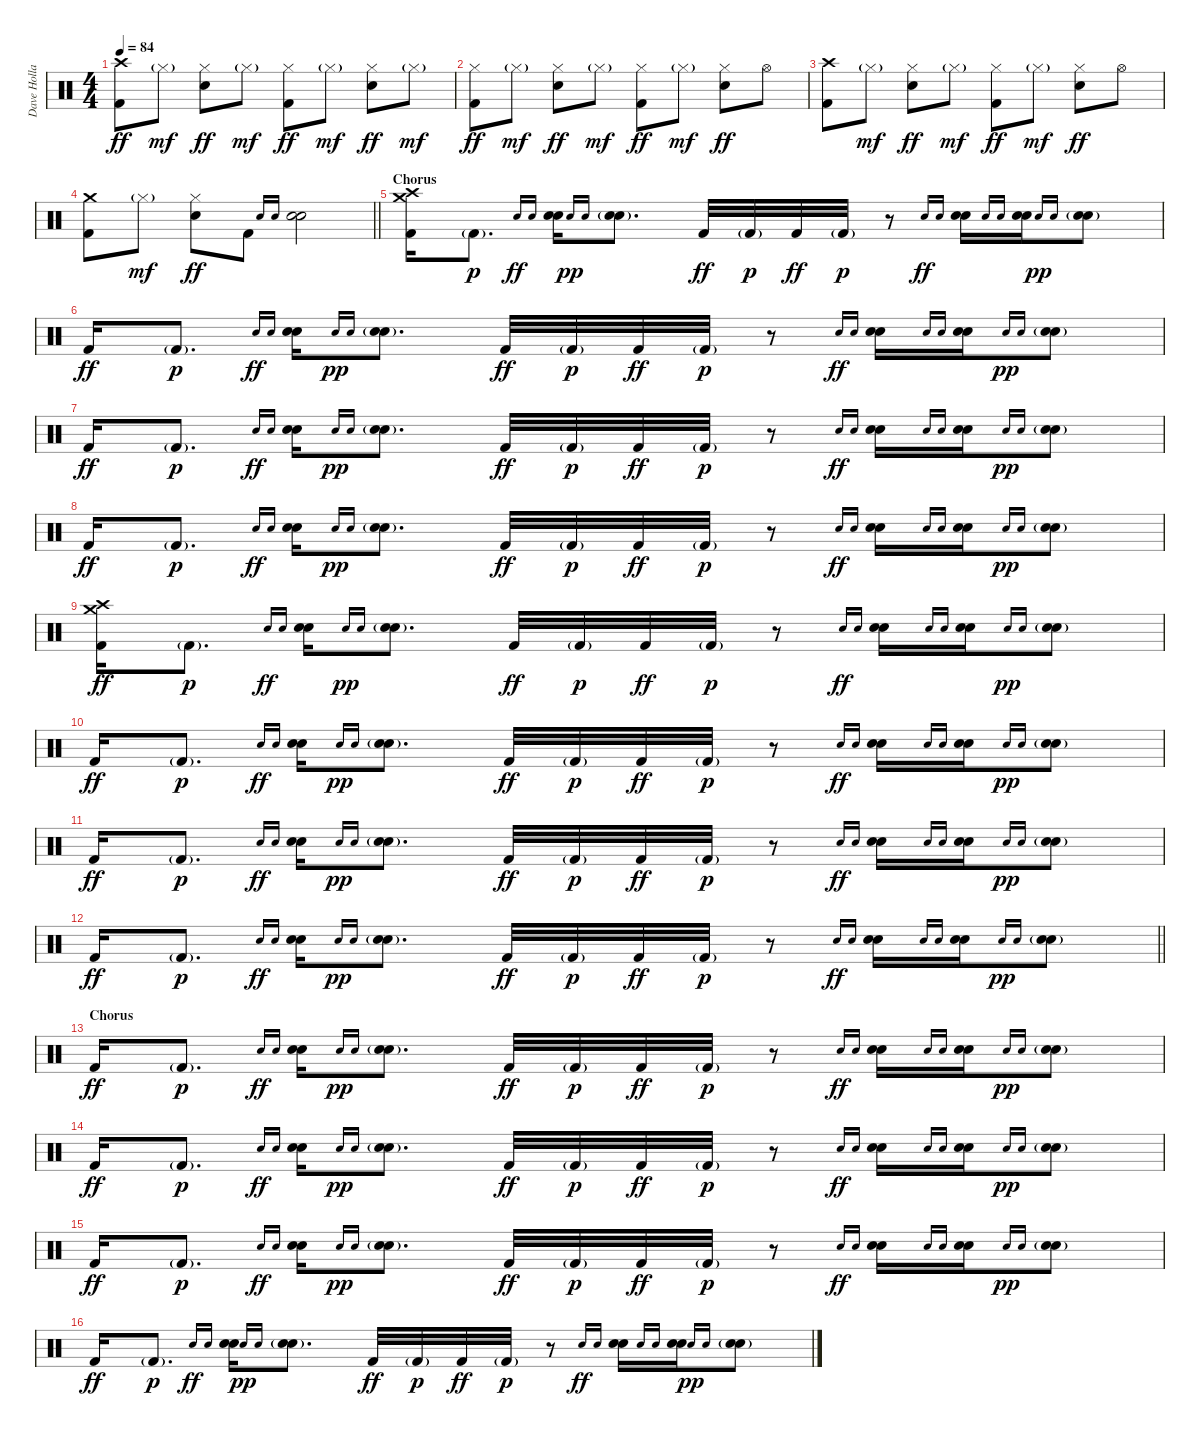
\track ("Dave Holland" "Dave Holla") {instrument percussion}
\staff {score}
\articulation defaults
\ts (4 4)
\tempo 84
\clef neutral
\ks c
("Crash high (hit)" "Kick (hit) 2").8{dy ff} "Hi-Hat (closed)"{g}.8{dy mf} ("Hi-Hat (closed)" "Snare (hit) 2").8{dy ff} "Hi-Hat (closed)"{g}.8{dy mf} ("Hi-Hat (closed)" "Kick (hit) 2").8{dy ff} "Hi-Hat (closed)"{g}.8{dy mf} ("Hi-Hat (closed)" "Snare (hit) 2").8{dy ff} "Hi-Hat (closed)"{g}.8{dy mf} |
("Hi-Hat (closed)" "Kick (hit) 2").8{dy ff} "Hi-Hat (closed)"{g}.8{dy mf} ("Hi-Hat (closed)" "Snare (hit) 2").8{dy ff} "Hi-Hat (closed)"{g}.8{dy mf} ("Hi-Hat (closed)" "Kick (hit) 2").8{dy ff} "Hi-Hat (closed)"{g}.8{dy mf} ("Hi-Hat (closed)" "Snare (hit) 2").8{dy ff} "Hi-Hat (open)".8 |
("Crash high (hit)" "Kick (hit) 2").8 "Hi-Hat (closed)"{g}.8{dy mf} ("Hi-Hat (closed)" "Snare (hit) 2").8{dy ff} "Hi-Hat (closed)"{g}.8{dy mf} ("Hi-Hat (closed)" "Kick (hit) 2").8{dy ff} "Hi-Hat (closed)"{g}.8{dy mf} ("Hi-Hat (closed)" "Snare (hit) 2").8{dy ff} "Hi-Hat (open)".8 |
\barLineRight lightlight
("Crash medium (hit)" "Kick (hit) 2").8 "Hi-Hat (closed)"{g}.8{dy mf} ("Hi-Hat (closed)" "Snare (hit) 2").8{dy ff} "Kick (hit) 2".8 "Electric Snare (hit)".16{gr onbeat} "Snare (hit) 2".16{gr onbeat} ("Electric Snare (hit)" "Snare (hit) 2").2 |
\section ("" "Chorus")
("Crash medium (hit)" "Crash high (hit)" "Kick (hit) 2").16 "Kick (hit) 2"{g}.8{d dy p} "Electric Snare (hit)".16{gr onbeat dy ff} "Snare (hit) 2".16{gr onbeat} ("Electric Snare (hit)" "Snare (hit) 2").16 "Electric Snare (hit)".16{gr onbeat dy pp} "Snare (hit) 2".16{gr onbeat} ("Electric Snare (hit)"{g} "Snare (hit) 2"{g}).8{d} "Kick (hit) 2".32{dy ff} "Kick (hit) 2"{g}.32{dy p} "Kick (hit) 2".32{dy ff} "Kick (hit) 2"{g}.32{dy p} r.8 "Electric Snare (hit)".16{gr onbeat dy ff} "Snare (hit) 2".16{gr onbeat} ("Electric Snare (hit)" "Snare (hit) 2").16 "Electric Snare (hit)".16{gr onbeat} "Snare (hit) 2".16{gr onbeat} ("Electric Snare (hit)" "Snare (hit) 2").16 "Electric Snare (hit)".16{gr onbeat dy pp} "Snare (hit) 2".16{gr onbeat} ("Electric Snare (hit)"{g} "Snare (hit) 2"{g}).8 |
"Kick (hit) 2".16{dy ff} "Kick (hit) 2"{g}.8{d dy p} "Electric Snare (hit)".16{gr onbeat dy ff} "Snare (hit) 2".16{gr onbeat} ("Electric Snare (hit)" "Snare (hit) 2").16 "Electric Snare (hit)".16{gr onbeat dy pp} "Snare (hit) 2".16{gr onbeat} ("Electric Snare (hit)"{g} "Snare (hit) 2"{g}).8{d} "Kick (hit) 2".32{dy ff} "Kick (hit) 2"{g}.32{dy p} "Kick (hit) 2".32{dy ff} "Kick (hit) 2"{g}.32{dy p} r.8 "Electric Snare (hit)".16{gr onbeat dy ff} "Snare (hit) 2".16{gr onbeat} ("Electric Snare (hit)" "Snare (hit) 2").16 "Electric Snare (hit)".16{gr onbeat} "Snare (hit) 2".16{gr onbeat} ("Electric Snare (hit)" "Snare (hit) 2").16 "Electric Snare (hit)".16{gr onbeat dy pp} "Snare (hit) 2".16{gr onbeat} ("Electric Snare (hit)"{g} "Snare (hit) 2"{g}).8 |
"Kick (hit) 2".16{dy ff} "Kick (hit) 2"{g}.8{d dy p} "Electric Snare (hit)".16{gr onbeat dy ff} "Snare (hit) 2".16{gr onbeat} ("Electric Snare (hit)" "Snare (hit) 2").16 "Electric Snare (hit)".16{gr onbeat dy pp} "Snare (hit) 2".16{gr onbeat} ("Electric Snare (hit)"{g} "Snare (hit) 2"{g}).8{d} "Kick (hit) 2".32{dy ff} "Kick (hit) 2"{g}.32{dy p} "Kick (hit) 2".32{dy ff} "Kick (hit) 2"{g}.32{dy p} r.8 "Electric Snare (hit)".16{gr onbeat dy ff} "Snare (hit) 2".16{gr onbeat} ("Electric Snare (hit)" "Snare (hit) 2").16 "Electric Snare (hit)".16{gr onbeat} "Snare (hit) 2".16{gr onbeat} ("Electric Snare (hit)" "Snare (hit) 2").16 "Electric Snare (hit)".16{gr onbeat dy pp} "Snare (hit) 2".16{gr onbeat} ("Electric Snare (hit)"{g} "Snare (hit) 2"{g}).8 |
"Kick (hit) 2".16{dy ff} "Kick (hit) 2"{g}.8{d dy p} "Electric Snare (hit)".16{gr onbeat dy ff} "Snare (hit) 2".16{gr onbeat} ("Electric Snare (hit)" "Snare (hit) 2").16 "Electric Snare (hit)".16{gr onbeat dy pp} "Snare (hit) 2".16{gr onbeat} ("Electric Snare (hit)"{g} "Snare (hit) 2"{g}).8{d} "Kick (hit) 2".32{dy ff} "Kick (hit) 2"{g}.32{dy p} "Kick (hit) 2".32{dy ff} "Kick (hit) 2"{g}.32{dy p} r.8 "Electric Snare (hit)".16{gr onbeat dy ff} "Snare (hit) 2".16{gr onbeat} ("Electric Snare (hit)" "Snare (hit) 2").16 "Electric Snare (hit)".16{gr onbeat} "Snare (hit) 2".16{gr onbeat} ("Electric Snare (hit)" "Snare (hit) 2").16 "Electric Snare (hit)".16{gr onbeat dy pp} "Snare (hit) 2".16{gr onbeat} ("Electric Snare (hit)"{g} "Snare (hit) 2"{g}).8 |
("Crash medium (hit)" "Crash high (hit)" "Kick (hit) 2").16{dy ff} "Kick (hit) 2"{g}.8{d dy p} "Electric Snare (hit)".16{gr onbeat dy ff} "Snare (hit) 2".16{gr onbeat} ("Electric Snare (hit)" "Snare (hit) 2").16 "Electric Snare (hit)".16{gr onbeat dy pp} "Snare (hit) 2".16{gr onbeat} ("Electric Snare (hit)"{g} "Snare (hit) 2"{g}).8{d} "Kick (hit) 2".32{dy ff} "Kick (hit) 2"{g}.32{dy p} "Kick (hit) 2".32{dy ff} "Kick (hit) 2"{g}.32{dy p} r.8 "Electric Snare (hit)".16{gr onbeat dy ff} "Snare (hit) 2".16{gr onbeat} ("Electric Snare (hit)" "Snare (hit) 2").16 "Electric Snare (hit)".16{gr onbeat} "Snare (hit) 2".16{gr onbeat} ("Electric Snare (hit)" "Snare (hit) 2").16 "Electric Snare (hit)".16{gr onbeat dy pp} "Snare (hit) 2".16{gr onbeat} ("Electric Snare (hit)"{g} "Snare (hit) 2"{g}).8 |
"Kick (hit) 2".16{dy ff} "Kick (hit) 2"{g}.8{d dy p} "Electric Snare (hit)".16{gr onbeat dy ff} "Snare (hit) 2".16{gr onbeat} ("Electric Snare (hit)" "Snare (hit) 2").16 "Electric Snare (hit)".16{gr onbeat dy pp} "Snare (hit) 2".16{gr onbeat} ("Electric Snare (hit)"{g} "Snare (hit) 2"{g}).8{d} "Kick (hit) 2".32{dy ff} "Kick (hit) 2"{g}.32{dy p} "Kick (hit) 2".32{dy ff} "Kick (hit) 2"{g}.32{dy p} r.8 "Electric Snare (hit)".16{gr onbeat dy ff} "Snare (hit) 2".16{gr onbeat} ("Electric Snare (hit)" "Snare (hit) 2").16 "Electric Snare (hit)".16{gr onbeat} "Snare (hit) 2".16{gr onbeat} ("Electric Snare (hit)" "Snare (hit) 2").16 "Electric Snare (hit)".16{gr onbeat dy pp} "Snare (hit) 2".16{gr onbeat} ("Electric Snare (hit)"{g} "Snare (hit) 2"{g}).8 |
"Kick (hit) 2".16{dy ff} "Kick (hit) 2"{g}.8{d dy p} "Electric Snare (hit)".16{gr onbeat dy ff} "Snare (hit) 2".16{gr onbeat} ("Electric Snare (hit)" "Snare (hit) 2").16 "Electric Snare (hit)".16{gr onbeat dy pp} "Snare (hit) 2".16{gr onbeat} ("Electric Snare (hit)"{g} "Snare (hit) 2"{g}).8{d} "Kick (hit) 2".32{dy ff} "Kick (hit) 2"{g}.32{dy p} "Kick (hit) 2".32{dy ff} "Kick (hit) 2"{g}.32{dy p} r.8 "Electric Snare (hit)".16{gr onbeat dy ff} "Snare (hit) 2".16{gr onbeat} ("Electric Snare (hit)" "Snare (hit) 2").16 "Electric Snare (hit)".16{gr onbeat} "Snare (hit) 2".16{gr onbeat} ("Electric Snare (hit)" "Snare (hit) 2").16 "Electric Snare (hit)".16{gr onbeat dy pp} "Snare (hit) 2".16{gr onbeat} ("Electric Snare (hit)"{g} "Snare (hit) 2"{g}).8 |
\barLineRight lightlight "Kick (hit) 2".16{dy ff} "Kick (hit) 2"{g}.8{d dy p} "Electric Snare (hit)".16{gr onbeat dy ff} "Snare (hit) 2".16{gr onbeat}
("Electric Snare (hit)" "Snare (hit) 2").16 "Electric Snare (hit)".16{gr onbeat dy pp} "Snare (hit) 2".16{gr onbeat} ("Electric Snare (hit)"{g} "Snare (hit) 2"{g}).8{d} "Kick (hit) 2".32{dy ff} "Kick (hit) 2"{g}.32{dy p} "Kick (hit) 2".32{dy ff} "Kick (hit) 2"{g}.32{dy p} r.8 "Electric Snare (hit)".16{gr onbeat dy ff} "Snare (hit) 2".16{gr onbeat} ("Electric Snare (hit)" "Snare (hit) 2").16 "Electric Snare (hit)".16{gr onbeat} "Snare (hit) 2".16{gr onbeat} ("Electric Snare (hit)" "Snare (hit) 2").16 "Electric Snare (hit)".16{gr onbeat dy pp} "Snare (hit) 2".16{gr onbeat} ("Electric Snare (hit)"{g} "Snare (hit) 2"{g}).8 |
\section ("" "Chorus")
"Kick (hit) 2".16{dy ff} "Kick (hit) 2"{g}.8{d dy p} "Electric Snare (hit)".16{gr onbeat dy ff} "Snare (hit) 2".16{gr onbeat} ("Electric Snare (hit)" "Snare (hit) 2").16 "Electric Snare (hit)".16{gr onbeat dy pp} "Snare (hit) 2".16{gr onbeat} ("Electric Snare (hit)"{g} "Snare (hit) 2"{g}).8{d} "Kick (hit) 2".32{dy ff} "Kick (hit) 2"{g}.32{dy p} "Kick (hit) 2".32{dy ff} "Kick (hit) 2"{g}.32{dy p} r.8 "Electric Snare (hit)".16{gr onbeat dy ff} "Snare (hit) 2".16{gr onbeat} ("Electric Snare (hit)" "Snare (hit) 2").16 "Electric Snare (hit)".16{gr onbeat} "Snare (hit) 2".16{gr onbeat} ("Electric Snare (hit)" "Snare (hit) 2").16 "Electric Snare (hit)".16{gr onbeat dy pp} "Snare (hit) 2".16{gr onbeat} ("Electric Snare (hit)"{g} "Snare (hit) 2"{g}).8 |
"Kick (hit) 2".16{dy ff} "Kick (hit) 2"{g}.8{d dy p} "Electric Snare (hit)".16{gr onbeat dy ff} "Snare (hit) 2".16{gr onbeat} ("Electric Snare (hit)" "Snare (hit) 2").16 "Electric Snare (hit)".16{gr onbeat dy pp} "Snare (hit) 2".16{gr onbeat} ("Electric Snare (hit)"{g} "Snare (hit) 2"{g}).8{d} "Kick (hit) 2".32{dy ff} "Kick (hit) 2"{g}.32{dy p} "Kick (hit) 2".32{dy ff} "Kick (hit) 2"{g}.32{dy p} r.8 "Electric Snare (hit)".16{gr onbeat dy ff} "Snare (hit) 2".16{gr onbeat} ("Electric Snare (hit)" "Snare (hit) 2").16 "Electric Snare (hit)".16{gr onbeat} "Snare (hit) 2".16{gr onbeat} ("Electric Snare (hit)" "Snare (hit) 2").16 "Electric Snare (hit)".16{gr onbeat dy pp} "Snare (hit) 2".16{gr onbeat} ("Electric Snare (hit)"{g} "Snare (hit) 2"{g}).8 |
"Kick (hit) 2".16{dy ff} "Kick (hit) 2"{g}.8{d dy p} "Electric Snare (hit)".16{gr onbeat dy ff} "Snare (hit) 2".16{gr onbeat} ("Electric Snare (hit)" "Snare (hit) 2").16 "Electric Snare (hit)".16{gr onbeat dy pp} "Snare (hit) 2".16{gr onbeat} ("Electric Snare (hit)"{g} "Snare (hit) 2"{g}).8{d} "Kick (hit) 2".32{dy ff} "Kick (hit) 2"{g}.32{dy p} "Kick (hit) 2".32{dy ff} "Kick (hit) 2"{g}.32{dy p} r.8 "Electric Snare (hit)".16{gr onbeat dy ff} "Snare (hit) 2".16{gr onbeat} ("Electric Snare (hit)" "Snare (hit) 2").16 "Electric Snare (hit)".16{gr onbeat} "Snare (hit) 2".16{gr onbeat} ("Electric Snare (hit)" "Snare (hit) 2").16 "Electric Snare (hit)".16{gr onbeat dy pp} "Snare (hit) 2".16{gr onbeat} ("Electric Snare (hit)"{g} "Snare (hit) 2"{g}).8 |
"Kick (hit) 2".16{dy ff} "Kick (hit) 2"{g}.8{d dy p} "Electric Snare (hit)".16{gr onbeat dy ff} "Snare (hit) 2".16{gr onbeat} ("Electric Snare (hit)" "Snare (hit) 2").16 "Electric Snare (hit)".16{gr onbeat dy pp} "Snare (hit) 2".16{gr onbeat} ("Electric Snare (hit)"{g} "Snare (hit) 2"{g}).8{d} "Kick (hit) 2".32{dy ff} "Kick (hit) 2"{g}.32{dy p} "Kick (hit) 2".32{dy ff} "Kick (hit) 2"{g}.32{dy p} r.8 "Electric Snare (hit)".16{gr onbeat dy ff} "Snare (hit) 2".16{gr onbeat} ("Electric Snare (hit)" "Snare (hit) 2").16 "Electric Snare (hit)".16{gr onbeat} "Snare (hit) 2".16{gr onbeat} ("Electric Snare (hit)" "Snare (hit) 2").16 "Electric Snare (hit)".16{gr onbeat dy pp} "Snare (hit) 2".16{gr onbeat} ("Electric Snare (hit)"{g} "Snare (hit) 2"{g}).8
